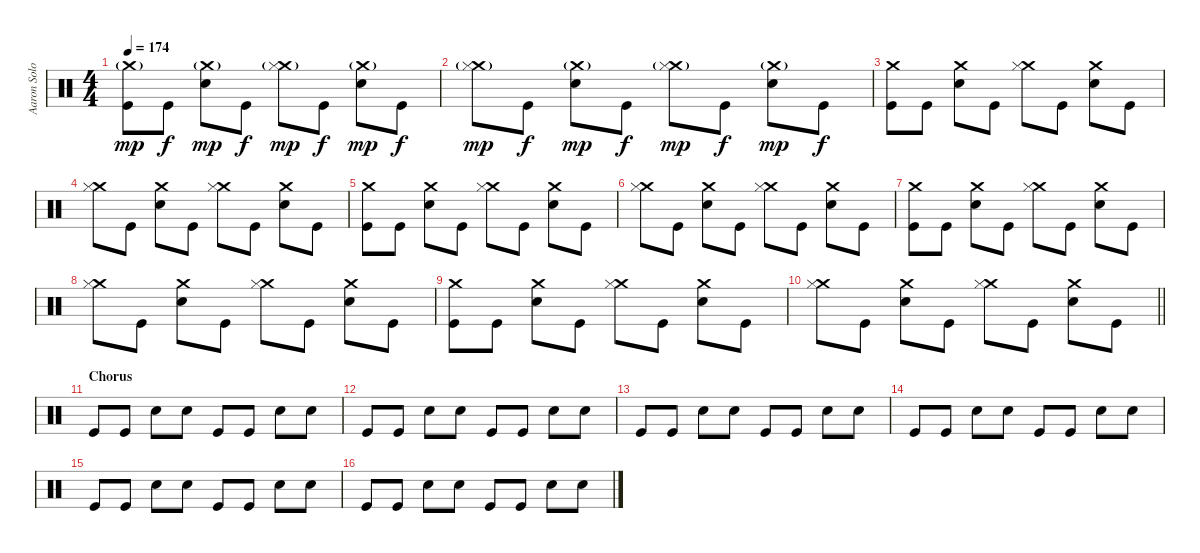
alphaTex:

\track ("Aaron Solowoniuk" "Aaron Solo") {instrument percussion}
\staff {score}
\articulation defaults
\ts (4 4)
\tempo 174
\clef neutral
\ks c
("Kick (hit)" "Crash medium (hit)"{g}).8{dy mp} "Kick (hit)".8{dy f} ("Crash medium (hit)"{g} "Electric Snare (hit)").8{dy mp} "Kick (hit)".8{dy f} ("Crash medium (hit)"{g} "Hi-Hat (closed)").8{dy mp} "Kick (hit)".8{dy f} ("Crash medium (hit)"{g} "Electric Snare (hit)").8{dy mp} "Kick (hit)".8{dy f} |
("Crash medium (hit)"{g} "Hi-Hat (closed)").8{dy mp} "Kick (hit)".8{dy f} ("Crash medium (hit)"{g} "Electric Snare (hit)").8{dy mp} "Kick (hit)".8{dy f} ("Crash medium (hit)"{g} "Hi-Hat (closed)").8{dy mp} "Kick (hit)".8{dy f} ("Crash medium (hit)"{g} "Electric Snare (hit)").8{dy mp} "Kick (hit)".8{dy f} |
("Kick (hit)" "Crash medium (hit)").8 "Kick (hit)".8 ("Crash medium (hit)" "Electric Snare (hit)").8 "Kick (hit)".8 ("Crash medium (hit)" "Hi-Hat (closed)").8 "Kick (hit)".8 ("Crash medium (hit)" "Electric Snare (hit)").8 "Kick (hit)".8 |
("Crash medium (hit)" "Hi-Hat (closed)").8 "Kick (hit)".8 ("Crash medium (hit)" "Electric Snare (hit)").8 "Kick (hit)".8 ("Crash medium (hit)" "Hi-Hat (closed)").8 "Kick (hit)".8 ("Crash medium (hit)" "Electric Snare (hit)").8 "Kick (hit)".8 |
("Kick (hit)" "Crash medium (hit)").8 "Kick (hit)".8 ("Crash medium (hit)" "Electric Snare (hit)").8 "Kick (hit)".8 ("Crash medium (hit)" "Hi-Hat (closed)").8 "Kick (hit)".8 ("Crash medium (hit)" "Electric Snare (hit)").8 "Kick (hit)".8 |
("Crash medium (hit)" "Hi-Hat (closed)").8 "Kick (hit)".8 ("Crash medium (hit)" "Electric Snare (hit)").8 "Kick (hit)".8 ("Crash medium (hit)" "Hi-Hat (closed)").8 "Kick (hit)".8 ("Crash medium (hit)" "Electric Snare (hit)").8 "Kick (hit)".8 |
("Kick (hit)" "Crash medium (hit)").8 "Kick (hit)".8 ("Crash medium (hit)" "Electric Snare (hit)").8 "Kick (hit)".8 ("Crash medium (hit)" "Hi-Hat (closed)").8 "Kick (hit)".8 ("Crash medium (hit)" "Electric Snare (hit)").8 "Kick (hit)".8 |
("Crash medium (hit)" "Hi-Hat (closed)").8 "Kick (hit)".8 ("Crash medium (hit)" "Electric Snare (hit)").8 "Kick (hit)".8 ("Crash medium (hit)" "Hi-Hat (closed)").8 "Kick (hit)".8 ("Crash medium (hit)" "Electric Snare (hit)").8 "Kick (hit)".8 |
("Kick (hit)" "Crash medium (hit)").8 "Kick (hit)".8 ("Crash medium (hit)" "Electric Snare (hit)").8 "Kick (hit)".8 ("Crash medium (hit)" "Hi-Hat (closed)").8 "Kick (hit)".8 ("Crash medium (hit)" "Electric Snare (hit)").8 "Kick (hit)".8 |
\barLineRight lightlight
("Crash medium (hit)" "Hi-Hat (closed)").8 "Kick (hit)".8 ("Crash medium (hit)" "Electric Snare (hit)").8 "Kick (hit)".8 ("Crash medium (hit)" "Hi-Hat (closed)").8 "Kick (hit)".8 ("Crash medium (hit)" "Electric Snare (hit)").8 "Kick (hit)".8 |
\section ("" "Chorus")
"Kick (hit)".8 "Kick (hit)".8 "Snare (hit) 2".8 "Snare (hit) 2".8 "Kick (hit)".8 "Kick (hit)".8 "Snare (hit) 2".8 "Snare (hit) 2".8 |
"Kick (hit)".8 "Kick (hit)".8 "Snare (hit) 2".8 "Snare (hit) 2".8 "Kick (hit)".8 "Kick (hit)".8 "Snare (hit) 2".8 "Snare (hit) 2".8 |
"Kick (hit)".8 "Kick (hit)".8 "Snare (hit) 2".8 "Snare (hit) 2".8 "Kick (hit)".8 "Kick (hit)".8 "Snare (hit) 2".8 "Snare (hit) 2".8 |
"Kick (hit)".8 "Kick (hit)".8 "Snare (hit) 2".8 "Snare (hit) 2".8 "Kick (hit)".8 "Kick (hit)".8 "Snare (hit) 2".8 "Snare (hit) 2".8 |
"Kick (hit)".8 "Kick (hit)".8 "Snare (hit) 2".8 "Snare (hit) 2".8 "Kick (hit)".8 "Kick (hit)".8 "Snare (hit) 2".8 "Snare (hit) 2".8 |
"Kick (hit)".8 "Kick (hit)".8 "Snare (hit) 2".8 "Snare (hit) 2".8 "Kick (hit)".8 "Kick (hit)".8 "Snare (hit) 2".8 "Snare (hit) 2".8
